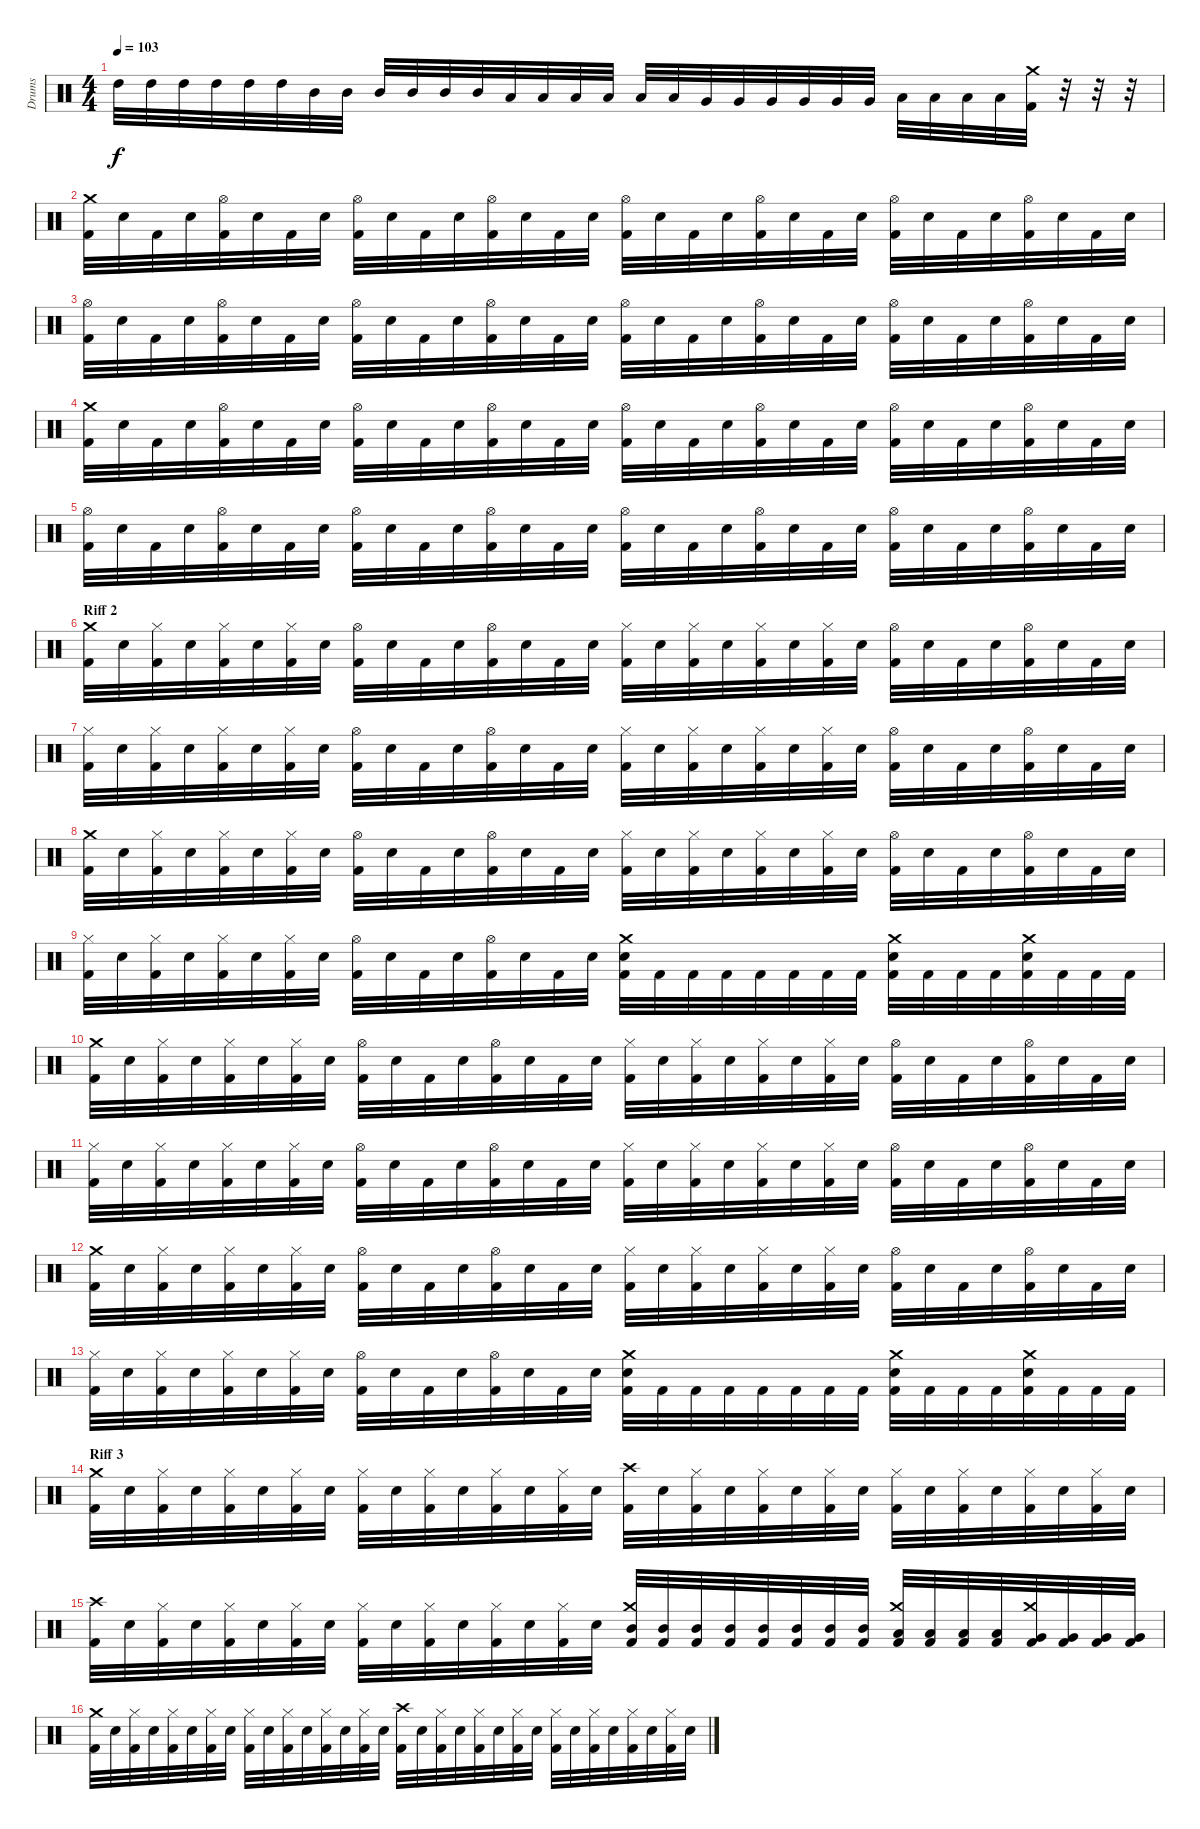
\track ("Drums" "Drums") {instrument percussion}
\staff {score}
\articulation defaults
\ts (4 4)
\tempo 103
\clef neutral
\ks c "High Tom (hit)".32{dy f} "High Tom (hit)".32 "High Tom (hit)".32 "High Tom (hit)".32 "High Tom (hit)".32 "High Tom (hit)".32 "Mid Tom (hit)".32 "Mid Tom (hit)".32 "Mid Tom (hit)".32 "Mid Tom (hit)".32 "Mid Tom (hit)".32 "Mid Tom (hit)".32 "Low Tom (hit)".32 "Low Tom (hit)".32 "Low Tom (hit)".32 "Low Tom (hit)".32 "Low Tom (hit)".32 "Low Tom (hit)".32 "Very Low Tom (hit)".32 "Very Low Tom (hit)".32 "Very Low Tom (hit)".32 "Very Low Tom (hit)".32 "Very Low Tom (hit)".32 "Very Low Tom (hit)".32 "Low Floor Tom (hit)".32 "Low Floor Tom (hit)".32 "Low Floor Tom (hit)".32 "Low Floor Tom (hit)".32
("Crash medium (hit)" "Kick (hit) 2").32 r.32 r.32 r.32 |
("Crash medium (hit)" "Kick (hit) 2").32 "Electric Snare (hit)".32 "Kick (hit) 2".32 "Electric Snare (hit)".32 ("Hi-Hat (open)" "Kick (hit) 2").32 "Electric Snare (hit)".32 "Kick (hit) 2".32 "Electric Snare (hit)".32 ("Hi-Hat (open)" "Kick (hit) 2").32 "Electric Snare (hit)".32 "Kick (hit) 2".32 "Electric Snare (hit)".32 ("Hi-Hat (open)" "Kick (hit) 2").32 "Electric Snare (hit)".32 "Kick (hit) 2".32 "Electric Snare (hit)".32 ("Hi-Hat (open)" "Kick (hit) 2").32 "Electric Snare (hit)".32 "Kick (hit) 2".32 "Electric Snare (hit)".32 ("Hi-Hat (open)" "Kick (hit) 2").32 "Electric Snare (hit)".32 "Kick (hit) 2".32 "Electric Snare (hit)".32 ("Hi-Hat (open)" "Kick (hit) 2").32 "Electric Snare (hit)".32 "Kick (hit) 2".32 "Electric Snare (hit)".32 ("Hi-Hat (open)" "Kick (hit) 2").32 "Electric Snare (hit)".32 "Kick (hit) 2".32 "Electric Snare (hit)".32 |
("Hi-Hat (open)" "Kick (hit) 2").32 "Electric Snare (hit)".32 "Kick (hit) 2".32 "Electric Snare (hit)".32 ("Hi-Hat (open)" "Kick (hit) 2").32 "Electric Snare (hit)".32 "Kick (hit) 2".32 "Electric Snare (hit)".32 ("Hi-Hat (open)" "Kick (hit) 2").32 "Electric Snare (hit)".32 "Kick (hit) 2".32 "Electric Snare (hit)".32 ("Hi-Hat (open)" "Kick (hit) 2").32 "Electric Snare (hit)".32 "Kick (hit) 2".32 "Electric Snare (hit)".32 ("Hi-Hat (open)" "Kick (hit) 2").32 "Electric Snare (hit)".32 "Kick (hit) 2".32 "Electric Snare (hit)".32 ("Hi-Hat (open)" "Kick (hit) 2").32 "Electric Snare (hit)".32 "Kick (hit) 2".32 "Electric Snare (hit)".32 ("Hi-Hat (open)" "Kick (hit) 2").32 "Electric Snare (hit)".32 "Kick (hit) 2".32 "Electric Snare (hit)".32 ("Hi-Hat (open)" "Kick (hit) 2").32 "Electric Snare (hit)".32 "Kick (hit) 2".32 "Electric Snare (hit)".32 |
("Crash medium (hit)" "Kick (hit) 2").32 "Electric Snare (hit)".32 "Kick (hit) 2".32 "Electric Snare (hit)".32 ("Hi-Hat (open)" "Kick (hit) 2").32 "Electric Snare (hit)".32 "Kick (hit) 2".32 "Electric Snare (hit)".32 ("Hi-Hat (open)" "Kick (hit) 2").32 "Electric Snare (hit)".32 "Kick (hit) 2".32 "Electric Snare (hit)".32 ("Hi-Hat (open)" "Kick (hit) 2").32 "Electric Snare (hit)".32 "Kick (hit) 2".32 "Electric Snare (hit)".32 ("Hi-Hat (open)" "Kick (hit) 2").32 "Electric Snare (hit)".32 "Kick (hit) 2".32 "Electric Snare (hit)".32 ("Hi-Hat (open)" "Kick (hit) 2").32 "Electric Snare (hit)".32 "Kick (hit) 2".32 "Electric Snare (hit)".32 ("Hi-Hat (open)" "Kick (hit) 2").32 "Electric Snare (hit)".32 "Kick (hit) 2".32 "Electric Snare (hit)".32 ("Hi-Hat (open)" "Kick (hit) 2").32 "Electric Snare (hit)".32 "Kick (hit) 2".32 "Electric Snare (hit)".32 |
("Hi-Hat (open)" "Kick (hit) 2").32 "Electric Snare (hit)".32 "Kick (hit) 2".32 "Electric Snare (hit)".32 ("Hi-Hat (open)" "Kick (hit) 2").32 "Electric Snare (hit)".32 "Kick (hit) 2".32 "Electric Snare (hit)".32 ("Hi-Hat (open)" "Kick (hit) 2").32 "Electric Snare (hit)".32 "Kick (hit) 2".32 "Electric Snare (hit)".32 ("Hi-Hat (open)" "Kick (hit) 2").32 "Electric Snare (hit)".32 "Kick (hit) 2".32 "Electric Snare (hit)".32 ("Hi-Hat (open)" "Kick (hit) 2").32 "Electric Snare (hit)".32 "Kick (hit) 2".32 "Electric Snare (hit)".32 ("Hi-Hat (open)" "Kick (hit) 2").32 "Electric Snare (hit)".32 "Kick (hit) 2".32 "Electric Snare (hit)".32 ("Hi-Hat (open)" "Kick (hit) 2").32 "Electric Snare (hit)".32 "Kick (hit) 2".32 "Electric Snare (hit)".32 ("Hi-Hat (open)" "Kick (hit) 2").32 "Electric Snare (hit)".32 "Kick (hit) 2".32 "Electric Snare (hit)".32 |
\section ("" "Riff 2")
("Crash medium (hit)" "Kick (hit) 2").32 "Electric Snare (hit)".32 ("Hi-Hat (closed)" "Kick (hit) 2").32 "Electric Snare (hit)".32 ("Hi-Hat (closed)" "Kick (hit) 2").32 "Electric Snare (hit)".32 ("Hi-Hat (closed)" "Kick (hit) 2").32 "Electric Snare (hit)".32 ("Hi-Hat (open)" "Kick (hit) 2").32 "Electric Snare (hit)".32 "Kick (hit) 2".32 "Electric Snare (hit)".32 ("Hi-Hat (open)" "Kick (hit) 2").32 "Electric Snare (hit)".32 "Kick (hit) 2".32 "Electric Snare (hit)".32 ("Hi-Hat (closed)" "Kick (hit) 2").32 "Electric Snare (hit)".32 ("Hi-Hat (closed)" "Kick (hit) 2").32 "Electric Snare (hit)".32 ("Hi-Hat (closed)" "Kick (hit) 2").32 "Electric Snare (hit)".32 ("Hi-Hat (closed)" "Kick (hit) 2").32 "Electric Snare (hit)".32 ("Hi-Hat (open)" "Kick (hit) 2").32 "Electric Snare (hit)".32 "Kick (hit) 2".32 "Electric Snare (hit)".32 ("Hi-Hat (open)" "Kick (hit) 2").32 "Electric Snare (hit)".32 "Kick (hit) 2".32 "Electric Snare (hit)".32 |
("Hi-Hat (closed)" "Kick (hit) 2").32 "Electric Snare (hit)".32 ("Hi-Hat (closed)" "Kick (hit) 2").32 "Electric Snare (hit)".32 ("Hi-Hat (closed)" "Kick (hit) 2").32 "Electric Snare (hit)".32 ("Hi-Hat (closed)" "Kick (hit) 2").32 "Electric Snare (hit)".32 ("Hi-Hat (open)" "Kick (hit) 2").32 "Electric Snare (hit)".32 "Kick (hit) 2".32 "Electric Snare (hit)".32 ("Hi-Hat (open)" "Kick (hit) 2").32 "Electric Snare (hit)".32 "Kick (hit) 2".32 "Electric Snare (hit)".32 ("Hi-Hat (closed)" "Kick (hit) 2").32 "Electric Snare (hit)".32 ("Hi-Hat (closed)" "Kick (hit) 2").32 "Electric Snare (hit)".32 ("Hi-Hat (closed)" "Kick (hit) 2").32 "Electric Snare (hit)".32 ("Hi-Hat (closed)" "Kick (hit) 2").32 "Electric Snare (hit)".32 ("Hi-Hat (open)" "Kick (hit) 2").32 "Electric Snare (hit)".32 "Kick (hit) 2".32 "Electric Snare (hit)".32 ("Hi-Hat (open)" "Kick (hit) 2").32 "Electric Snare (hit)".32 "Kick (hit) 2".32 "Electric Snare (hit)".32 |
("Crash medium (hit)" "Kick (hit) 2").32 "Electric Snare (hit)".32 ("Hi-Hat (closed)" "Kick (hit) 2").32 "Electric Snare (hit)".32 ("Hi-Hat (closed)" "Kick (hit) 2").32 "Electric Snare (hit)".32 ("Hi-Hat (closed)" "Kick (hit) 2").32 "Electric Snare (hit)".32 ("Hi-Hat (open)" "Kick (hit) 2").32 "Electric Snare (hit)".32 "Kick (hit) 2".32 "Electric Snare (hit)".32 ("Hi-Hat (open)" "Kick (hit) 2").32 "Electric Snare (hit)".32 "Kick (hit) 2".32 "Electric Snare (hit)".32 ("Hi-Hat (closed)" "Kick (hit) 2").32 "Electric Snare (hit)".32 ("Hi-Hat (closed)" "Kick (hit) 2").32 "Electric Snare (hit)".32 ("Hi-Hat (closed)" "Kick (hit) 2").32 "Electric Snare (hit)".32 ("Hi-Hat (closed)" "Kick (hit) 2").32 "Electric Snare (hit)".32 ("Hi-Hat (open)" "Kick (hit) 2").32 "Electric Snare (hit)".32 "Kick (hit) 2".32 "Electric Snare (hit)".32 ("Hi-Hat (open)" "Kick (hit) 2").32 "Electric Snare (hit)".32 "Kick (hit) 2".32 "Electric Snare (hit)".32 |
("Hi-Hat (closed)" "Kick (hit) 2").32 "Electric Snare (hit)".32 ("Hi-Hat (closed)" "Kick (hit) 2").32 "Electric Snare (hit)".32 ("Hi-Hat (closed)" "Kick (hit) 2").32 "Electric Snare (hit)".32 ("Hi-Hat (closed)" "Kick (hit) 2").32 "Electric Snare (hit)".32 ("Hi-Hat (open)" "Kick (hit) 2").32 "Electric Snare (hit)".32 "Kick (hit) 2".32 "Electric Snare (hit)".32 ("Hi-Hat (open)" "Kick (hit) 2").32 "Electric Snare (hit)".32 "Kick (hit) 2".32 "Electric Snare (hit)".32 ("Crash medium (hit)" "Electric Snare (hit)" "Kick (hit) 2").32 "Kick (hit) 2".32 "Kick (hit) 2".32 "Kick (hit) 2".32 "Kick (hit) 2".32 "Kick (hit) 2".32 "Kick (hit) 2".32 "Kick (hit) 2".32 ("Crash medium (hit)" "Electric Snare (hit)" "Kick (hit) 2").32 "Kick (hit) 2".32 "Kick (hit) 2".32 "Kick (hit) 2".32 ("Crash medium (hit)" "Electric Snare (hit)" "Kick (hit) 2").32 "Kick (hit) 2".32 "Kick (hit) 2".32 "Kick (hit) 2".32 |
("Crash medium (hit)" "Kick (hit) 2").32 "Electric Snare (hit)".32 ("Hi-Hat (closed)" "Kick (hit) 2").32 "Electric Snare (hit)".32 ("Hi-Hat (closed)" "Kick (hit) 2").32 "Electric Snare (hit)".32 ("Hi-Hat (closed)" "Kick (hit) 2").32 "Electric Snare (hit)".32 ("Hi-Hat (open)" "Kick (hit) 2").32 "Electric Snare (hit)".32 "Kick (hit) 2".32 "Electric Snare (hit)".32 ("Hi-Hat (open)" "Kick (hit) 2").32 "Electric Snare (hit)".32 "Kick (hit) 2".32 "Electric Snare (hit)".32 ("Hi-Hat (closed)" "Kick (hit) 2").32 "Electric Snare (hit)".32 ("Hi-Hat (closed)" "Kick (hit) 2").32 "Electric Snare (hit)".32 ("Hi-Hat (closed)" "Kick (hit) 2").32 "Electric Snare (hit)".32 ("Hi-Hat (closed)" "Kick (hit) 2").32 "Electric Snare (hit)".32 ("Hi-Hat (open)" "Kick (hit) 2").32 "Electric Snare (hit)".32 "Kick (hit) 2".32 "Electric Snare (hit)".32 ("Hi-Hat (open)" "Kick (hit) 2").32 "Electric Snare (hit)".32 "Kick (hit) 2".32 "Electric Snare (hit)".32 |
("Hi-Hat (closed)" "Kick (hit) 2").32 "Electric Snare (hit)".32 ("Hi-Hat (closed)" "Kick (hit) 2").32 "Electric Snare (hit)".32 ("Hi-Hat (closed)" "Kick (hit) 2").32 "Electric Snare (hit)".32 ("Hi-Hat (closed)" "Kick (hit) 2").32 "Electric Snare (hit)".32 ("Hi-Hat (open)" "Kick (hit) 2").32 "Electric Snare (hit)".32 "Kick (hit) 2".32 "Electric Snare (hit)".32 ("Hi-Hat (open)" "Kick (hit) 2").32 "Electric Snare (hit)".32 "Kick (hit) 2".32 "Electric Snare (hit)".32 ("Hi-Hat (closed)" "Kick (hit) 2").32 "Electric Snare (hit)".32 ("Hi-Hat (closed)" "Kick (hit) 2").32 "Electric Snare (hit)".32 ("Hi-Hat (closed)" "Kick (hit) 2").32 "Electric Snare (hit)".32 ("Hi-Hat (closed)" "Kick (hit) 2").32 "Electric Snare (hit)".32 ("Hi-Hat (open)" "Kick (hit) 2").32 "Electric Snare (hit)".32 "Kick (hit) 2".32 "Electric Snare (hit)".32 ("Hi-Hat (open)" "Kick (hit) 2").32 "Electric Snare (hit)".32 "Kick (hit) 2".32 "Electric Snare (hit)".32 |
("Crash medium (hit)" "Kick (hit) 2").32 "Electric Snare (hit)".32 ("Hi-Hat (closed)" "Kick (hit) 2").32 "Electric Snare (hit)".32 ("Hi-Hat (closed)" "Kick (hit) 2").32 "Electric Snare (hit)".32 ("Hi-Hat (closed)" "Kick (hit) 2").32 "Electric Snare (hit)".32 ("Hi-Hat (open)" "Kick (hit) 2").32 "Electric Snare (hit)".32 "Kick (hit) 2".32 "Electric Snare (hit)".32 ("Hi-Hat (open)" "Kick (hit) 2").32 "Electric Snare (hit)".32 "Kick (hit) 2".32 "Electric Snare (hit)".32 ("Hi-Hat (closed)" "Kick (hit) 2").32 "Electric Snare (hit)".32 ("Hi-Hat (closed)" "Kick (hit) 2").32 "Electric Snare (hit)".32 ("Hi-Hat (closed)" "Kick (hit) 2").32 "Electric Snare (hit)".32 ("Hi-Hat (closed)" "Kick (hit) 2").32 "Electric Snare (hit)".32 ("Hi-Hat (open)" "Kick (hit) 2").32 "Electric Snare (hit)".32 "Kick (hit) 2".32 "Electric Snare (hit)".32 ("Hi-Hat (open)" "Kick (hit) 2").32 "Electric Snare (hit)".32 "Kick (hit) 2".32 "Electric Snare (hit)".32 |
("Hi-Hat (closed)" "Kick (hit) 2").32 "Electric Snare (hit)".32 ("Hi-Hat (closed)" "Kick (hit) 2").32 "Electric Snare (hit)".32 ("Hi-Hat (closed)" "Kick (hit) 2").32 "Electric Snare (hit)".32 ("Hi-Hat (closed)" "Kick (hit) 2").32 "Electric Snare (hit)".32 ("Hi-Hat (open)" "Kick (hit) 2").32 "Electric Snare (hit)".32 "Kick (hit) 2".32 "Electric Snare (hit)".32 ("Hi-Hat (open)" "Kick (hit) 2").32 "Electric Snare (hit)".32 "Kick (hit) 2".32 "Electric Snare (hit)".32 ("Crash medium (hit)" "Electric Snare (hit)" "Kick (hit) 2").32 "Kick (hit) 2".32 "Kick (hit) 2".32 "Kick (hit) 2".32 "Kick (hit) 2".32 "Kick (hit) 2".32 "Kick (hit) 2".32 "Kick (hit) 2".32 ("Crash medium (hit)" "Electric Snare (hit)" "Kick (hit) 2").32 "Kick (hit) 2".32 "Kick (hit) 2".32 "Kick (hit) 2".32 ("Crash medium (hit)" "Electric Snare (hit)" "Kick (hit) 2").32 "Kick (hit) 2".32 "Kick (hit) 2".32 "Kick (hit) 2".32 |
\section ("" "Riff 3")
("Crash medium (hit)" "Kick (hit) 2").32 "Electric Snare (hit)".32 ("Hi-Hat (closed)" "Kick (hit) 2").32 "Electric Snare (hit)".32 ("Hi-Hat (closed)" "Kick (hit) 2").32 "Electric Snare (hit)".32 ("Hi-Hat (closed)" "Kick (hit) 2").32 "Electric Snare (hit)".32 ("Hi-Hat (closed)" "Kick (hit) 2").32 "Electric Snare (hit)".32 ("Hi-Hat (closed)" "Kick (hit) 2").32 "Electric Snare (hit)".32 ("Hi-Hat (closed)" "Kick (hit) 2").32 "Electric Snare (hit)".32 ("Hi-Hat (closed)" "Kick (hit) 2").32 "Electric Snare (hit)".32 ("Crash high (hit)" "Kick (hit) 2").32 "Electric Snare (hit)".32 ("Hi-Hat (closed)" "Kick (hit) 2").32 "Electric Snare (hit)".32 ("Hi-Hat (closed)" "Kick (hit) 2").32 "Electric Snare (hit)".32 ("Hi-Hat (closed)" "Kick (hit) 2").32 "Electric Snare (hit)".32 ("Hi-Hat (closed)" "Kick (hit) 2").32 "Electric Snare (hit)".32 ("Hi-Hat (closed)" "Kick (hit) 2").32 "Electric Snare (hit)".32 ("Hi-Hat (closed)" "Kick (hit) 2").32 "Electric Snare (hit)".32 ("Hi-Hat (closed)" "Kick (hit) 2").32 "Electric Snare (hit)".32 |
("Crash high (hit)" "Kick (hit) 2").32 "Electric Snare (hit)".32 ("Hi-Hat (closed)" "Kick (hit) 2").32 "Electric Snare (hit)".32 ("Hi-Hat (closed)" "Kick (hit) 2").32 "Electric Snare (hit)".32 ("Hi-Hat (closed)" "Kick (hit) 2").32 "Electric Snare (hit)".32 ("Hi-Hat (closed)" "Kick (hit) 2").32 "Electric Snare (hit)".32 ("Hi-Hat (closed)" "Kick (hit) 2").32 "Electric Snare (hit)".32 ("Hi-Hat (closed)" "Kick (hit) 2").32 "Electric Snare (hit)".32 ("Hi-Hat (closed)" "Kick (hit) 2").32 "Electric Snare (hit)".32 ("Crash medium (hit)" "Mid Tom (hit)" "Kick (hit) 2").32 ("Mid Tom (hit)" "Kick (hit) 2").32 ("Mid Tom (hit)" "Kick (hit) 2").32 ("Mid Tom (hit)" "Kick (hit) 2").32 ("Mid Tom (hit)" "Kick (hit) 2").32 ("Mid Tom (hit)" "Kick (hit) 2").32 ("Mid Tom (hit)" "Kick (hit) 2").32 ("Mid Tom (hit)" "Kick (hit) 2").32 ("Crash medium (hit)" "Low Tom (hit)" "Kick (hit) 2").32 ("Low Tom (hit)" "Kick (hit) 2").32 ("Low Tom (hit)" "Kick (hit) 2").32 ("Low Tom (hit)" "Kick (hit) 2").32 ("Crash medium (hit)" "Very Low Tom (hit)" "Kick (hit) 2").32 ("Very Low Tom (hit)" "Kick (hit) 2").32 ("Very Low Tom (hit)" "Kick (hit) 2").32 ("Very Low Tom (hit)" "Kick (hit) 2").32 |
("Crash medium (hit)" "Kick (hit) 2").32 "Electric Snare (hit)".32 ("Hi-Hat (closed)" "Kick (hit) 2").32 "Electric Snare (hit)".32 ("Hi-Hat (closed)" "Kick (hit) 2").32 "Electric Snare (hit)".32 ("Hi-Hat (closed)" "Kick (hit) 2").32 "Electric Snare (hit)".32 ("Hi-Hat (closed)" "Kick (hit) 2").32 "Electric Snare (hit)".32 ("Hi-Hat (closed)" "Kick (hit) 2").32 "Electric Snare (hit)".32 ("Hi-Hat (closed)" "Kick (hit) 2").32 "Electric Snare (hit)".32 ("Hi-Hat (closed)" "Kick (hit) 2").32 "Electric Snare (hit)".32 ("Crash high (hit)" "Kick (hit) 2").32 "Electric Snare (hit)".32 ("Hi-Hat (closed)" "Kick (hit) 2").32 "Electric Snare (hit)".32 ("Hi-Hat (closed)" "Kick (hit) 2").32 "Electric Snare (hit)".32 ("Hi-Hat (closed)" "Kick (hit) 2").32 "Electric Snare (hit)".32 ("Hi-Hat (closed)" "Kick (hit) 2").32 "Electric Snare (hit)".32 ("Hi-Hat (closed)" "Kick (hit) 2").32 "Electric Snare (hit)".32 ("Hi-Hat (closed)" "Kick (hit) 2").32 "Electric Snare (hit)".32 ("Hi-Hat (closed)" "Kick (hit) 2").32 "Electric Snare (hit)".32
